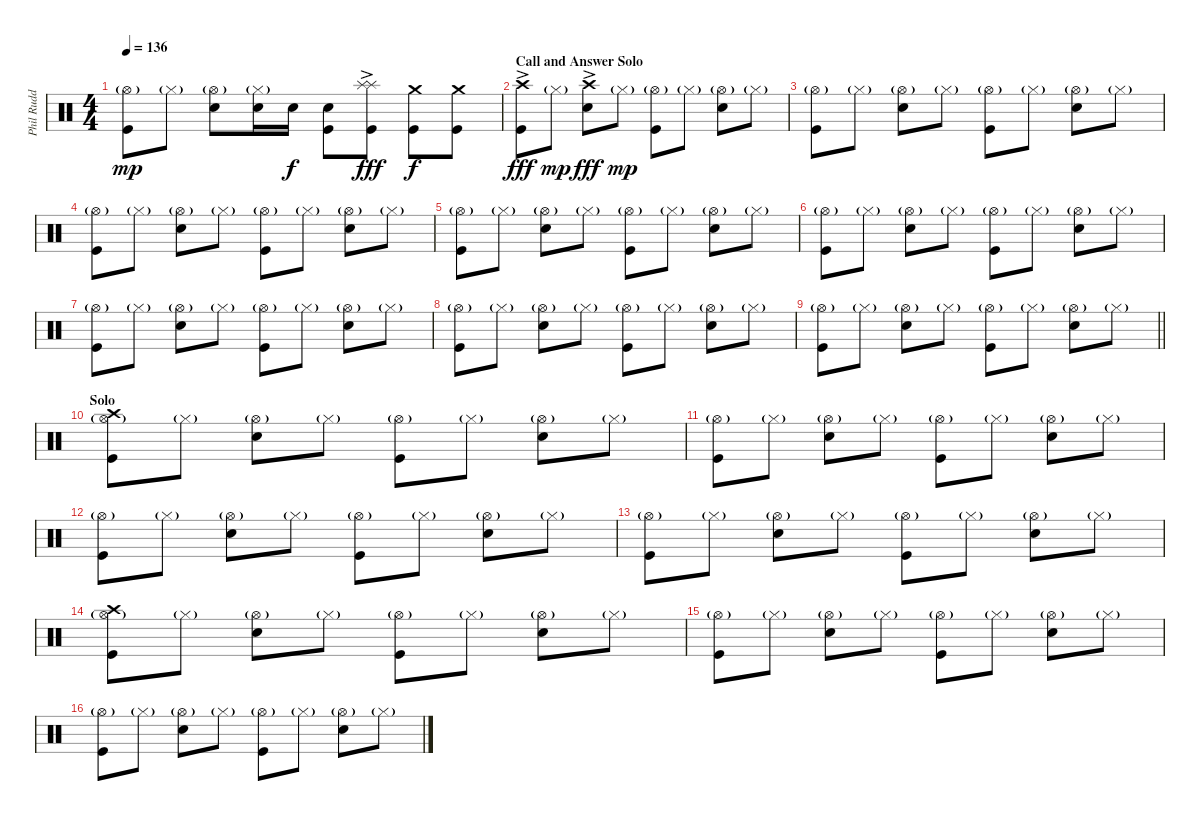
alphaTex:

\track ("Phil Rudd" "Phil Rudd") {instrument percussion}
\staff {score}
\articulation defaults
\ts (4 4)
\tempo 136
\clef neutral
\ks c
("Hi-Hat (open)"{g} "Kick (hit)").8{dy mp} "Hi-Hat (closed)"{g}.8 ("Hi-Hat (open)"{g} "Electric Snare (hit)").8 ("Hi-Hat (closed)"{g} "Electric Snare (hit)").16 "Electric Snare (hit)".16{dy f} ("Electric Snare (hit)" "Kick (hit)").8 ("Splash (hit)"{ac} "Splash (hit)"{ac} "Kick (hit)").8{dy fff} ("Crash medium (hit)" "Kick (hit)").8{dy f} ("Crash medium (hit)" "Kick (hit)").8 |
\section ("" "Call and Answer Solo")
("Crash high (hit)"{ac} "Kick (hit)").8{dy fff} "Hi-Hat (closed)"{g}.8{dy mp} ("Crash high (hit)"{ac} "Electric Snare (hit)").8{dy fff} "Hi-Hat (closed)"{g}.8{dy mp} ("Hi-Hat (open)"{g} "Kick (hit)").8 "Hi-Hat (closed)"{g}.8 ("Hi-Hat (open)"{g} "Electric Snare (hit)").8 "Hi-Hat (closed)"{g}.8 |
("Hi-Hat (open)"{g} "Kick (hit)").8 "Hi-Hat (closed)"{g}.8 ("Hi-Hat (open)"{g} "Electric Snare (hit)").8 "Hi-Hat (closed)"{g}.8 ("Hi-Hat (open)"{g} "Kick (hit)").8 "Hi-Hat (closed)"{g}.8 ("Hi-Hat (open)"{g} "Electric Snare (hit)").8 "Hi-Hat (closed)"{g}.8 |
("Hi-Hat (open)"{g} "Kick (hit)").8 "Hi-Hat (closed)"{g}.8 ("Hi-Hat (open)"{g} "Electric Snare (hit)").8 "Hi-Hat (closed)"{g}.8 ("Hi-Hat (open)"{g} "Kick (hit)").8 "Hi-Hat (closed)"{g}.8 ("Hi-Hat (open)"{g} "Electric Snare (hit)").8 "Hi-Hat (closed)"{g}.8 |
("Hi-Hat (open)"{g} "Kick (hit)").8 "Hi-Hat (closed)"{g}.8 ("Hi-Hat (open)"{g} "Electric Snare (hit)").8 "Hi-Hat (closed)"{g}.8 ("Hi-Hat (open)"{g} "Kick (hit)").8 "Hi-Hat (closed)"{g}.8 ("Hi-Hat (open)"{g} "Electric Snare (hit)").8 "Hi-Hat (closed)"{g}.8 |
("Hi-Hat (open)"{g} "Kick (hit)").8 "Hi-Hat (closed)"{g}.8 ("Hi-Hat (open)"{g} "Electric Snare (hit)").8 "Hi-Hat (closed)"{g}.8 ("Hi-Hat (open)"{g} "Kick (hit)").8 "Hi-Hat (closed)"{g}.8 ("Hi-Hat (open)"{g} "Electric Snare (hit)").8 "Hi-Hat (closed)"{g}.8 |
("Hi-Hat (open)"{g} "Kick (hit)").8 "Hi-Hat (closed)"{g}.8 ("Hi-Hat (open)"{g} "Electric Snare (hit)").8 "Hi-Hat (closed)"{g}.8 ("Hi-Hat (open)"{g} "Kick (hit)").8 "Hi-Hat (closed)"{g}.8 ("Hi-Hat (open)"{g} "Electric Snare (hit)").8 "Hi-Hat (closed)"{g}.8 |
("Hi-Hat (open)"{g} "Kick (hit)").8 "Hi-Hat (closed)"{g}.8 ("Hi-Hat (open)"{g} "Electric Snare (hit)").8 "Hi-Hat (closed)"{g}.8 ("Hi-Hat (open)"{g} "Kick (hit)").8 "Hi-Hat (closed)"{g}.8 ("Hi-Hat (open)"{g} "Electric Snare (hit)").8 "Hi-Hat (closed)"{g}.8 |
\barLineRight lightlight
("Hi-Hat (open)"{g} "Kick (hit)").8 "Hi-Hat (closed)"{g}.8 ("Hi-Hat (open)"{g} "Electric Snare (hit)").8 "Hi-Hat (closed)"{g}.8 ("Hi-Hat (open)"{g} "Kick (hit)").8 "Hi-Hat (closed)"{g}.8 ("Hi-Hat (open)"{g} "Electric Snare (hit)").8 "Hi-Hat (closed)"{g}.8 |
\section ("" "Solo")
("Crash high (hit)" "Hi-Hat (open)"{g} "Kick (hit)").8 "Hi-Hat (closed)"{g}.8 ("Hi-Hat (open)"{g} "Electric Snare (hit)").8 "Hi-Hat (closed)"{g}.8 ("Hi-Hat (open)"{g} "Kick (hit)").8 "Hi-Hat (closed)"{g}.8 ("Hi-Hat (open)"{g} "Electric Snare (hit)").8 "Hi-Hat (closed)"{g}.8 |
("Hi-Hat (open)"{g} "Kick (hit)").8 "Hi-Hat (closed)"{g}.8 ("Hi-Hat (open)"{g} "Electric Snare (hit)").8 "Hi-Hat (closed)"{g}.8 ("Hi-Hat (open)"{g} "Kick (hit)").8 "Hi-Hat (closed)"{g}.8 ("Hi-Hat (open)"{g} "Electric Snare (hit)").8 "Hi-Hat (closed)"{g}.8 |
("Hi-Hat (open)"{g} "Kick (hit)").8 "Hi-Hat (closed)"{g}.8 ("Hi-Hat (open)"{g} "Electric Snare (hit)").8 "Hi-Hat (closed)"{g}.8 ("Hi-Hat (open)"{g} "Kick (hit)").8 "Hi-Hat (closed)"{g}.8 ("Hi-Hat (open)"{g} "Electric Snare (hit)").8 "Hi-Hat (closed)"{g}.8 |
("Hi-Hat (open)"{g} "Kick (hit)").8 "Hi-Hat (closed)"{g}.8 ("Hi-Hat (open)"{g} "Electric Snare (hit)").8 "Hi-Hat (closed)"{g}.8 ("Hi-Hat (open)"{g} "Kick (hit)").8 "Hi-Hat (closed)"{g}.8 ("Hi-Hat (open)"{g} "Electric Snare (hit)").8 "Hi-Hat (closed)"{g}.8 |
("Crash high (hit)" "Hi-Hat (open)"{g} "Kick (hit)").8 "Hi-Hat (closed)"{g}.8 ("Hi-Hat (open)"{g} "Electric Snare (hit)").8 "Hi-Hat (closed)"{g}.8 ("Hi-Hat (open)"{g} "Kick (hit)").8 "Hi-Hat (closed)"{g}.8 ("Hi-Hat (open)"{g} "Electric Snare (hit)").8 "Hi-Hat (closed)"{g}.8 |
("Hi-Hat (open)"{g} "Kick (hit)").8 "Hi-Hat (closed)"{g}.8 ("Hi-Hat (open)"{g} "Electric Snare (hit)").8 "Hi-Hat (closed)"{g}.8 ("Hi-Hat (open)"{g} "Kick (hit)").8 "Hi-Hat (closed)"{g}.8 ("Hi-Hat (open)"{g} "Electric Snare (hit)").8 "Hi-Hat (closed)"{g}.8 |
("Hi-Hat (open)"{g} "Kick (hit)").8 "Hi-Hat (closed)"{g}.8 ("Hi-Hat (open)"{g} "Electric Snare (hit)").8 "Hi-Hat (closed)"{g}.8 ("Hi-Hat (open)"{g} "Kick (hit)").8 "Hi-Hat (closed)"{g}.8 ("Hi-Hat (open)"{g} "Electric Snare (hit)").8 "Hi-Hat (closed)"{g}.8
